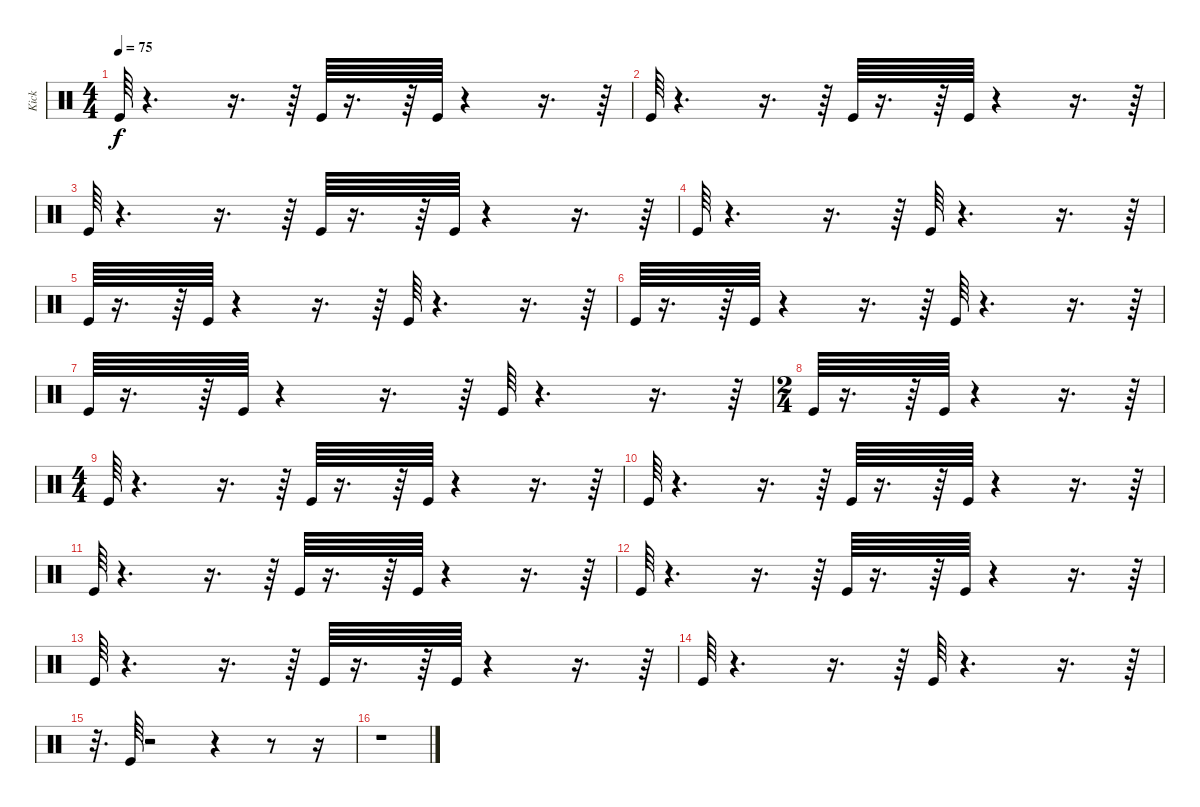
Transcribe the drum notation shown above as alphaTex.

\track ("Kick" "Kick") {instrument percussion}
\staff {score}
\articulation defaults
\ts (4 4)
\tempo 75
\clef neutral
\ks c "Kick (hit)".64{dy f}
r.4{d} r.16{d} r.64 "Kick (hit)".64 r.16{d} r.64 "Kick (hit)".64 r.4 r.16{d} r.64 |
"Kick (hit)".64 r.4{d} r.16{d} r.64 "Kick (hit)".64 r.16{d} r.64 "Kick (hit)".64 r.4 r.16{d} r.64 |
"Kick (hit)".64 r.4{d} r.16{d} r.64 "Kick (hit)".64 r.16{d} r.64 "Kick (hit)".64 r.4 r.16{d} r.64 |
"Kick (hit)".64 r.4{d} r.16{d} r.64 "Kick (hit)".64 r.4{d} r.16{d} r.64 |
"Kick (hit)".64 r.16{d} r.64 "Kick (hit)".64 r.4 r.16{d} r.64 "Kick (hit)".64 r.4{d} r.16{d} r.64 |
"Kick (hit)".64 r.16{d} r.64 "Kick (hit)".64 r.4 r.16{d} r.64 "Kick (hit)".64 r.4{d} r.16{d} r.64 |
"Kick (hit)".64 r.16{d} r.64 "Kick (hit)".64 r.4 r.16{d} r.64 "Kick (hit)".64 r.4{d} r.16{d} r.64 |
\ts (2 4)
"Kick (hit)".64 r.16{d} r.64 "Kick (hit)".64 r.4 r.16{d} r.64 |
\ts (4 4)
"Kick (hit)".64 r.4{d} r.16{d} r.64 "Kick (hit)".64 r.16{d} r.64 "Kick (hit)".64 r.4 r.16{d} r.64 |
"Kick (hit)".64 r.4{d} r.16{d} r.64 "Kick (hit)".64 r.16{d} r.64 "Kick (hit)".64 r.4 r.16{d} r.64 |
"Kick (hit)".64 r.4{d} r.16{d} r.64 "Kick (hit)".64 r.16{d} r.64 "Kick (hit)".64 r.4 r.16{d} r.64 |
"Kick (hit)".64 r.4{d} r.16{d} r.64 "Kick (hit)".64 r.16{d} r.64 "Kick (hit)".64 r.4 r.16{d} r.64 |
"Kick (hit)".64 r.4{d} r.16{d} r.64 "Kick (hit)".64 r.16{d} r.64 "Kick (hit)".64 r.4 r.16{d} r.64 |
"Kick (hit)".64 r.4{d} r.16{d} r.64 "Kick (hit)".64 r.4{d} r.16{d} r.64 |
r.32{d} "Kick (hit)".64 r.2 r.4 r.8 r.16 |
r.1
